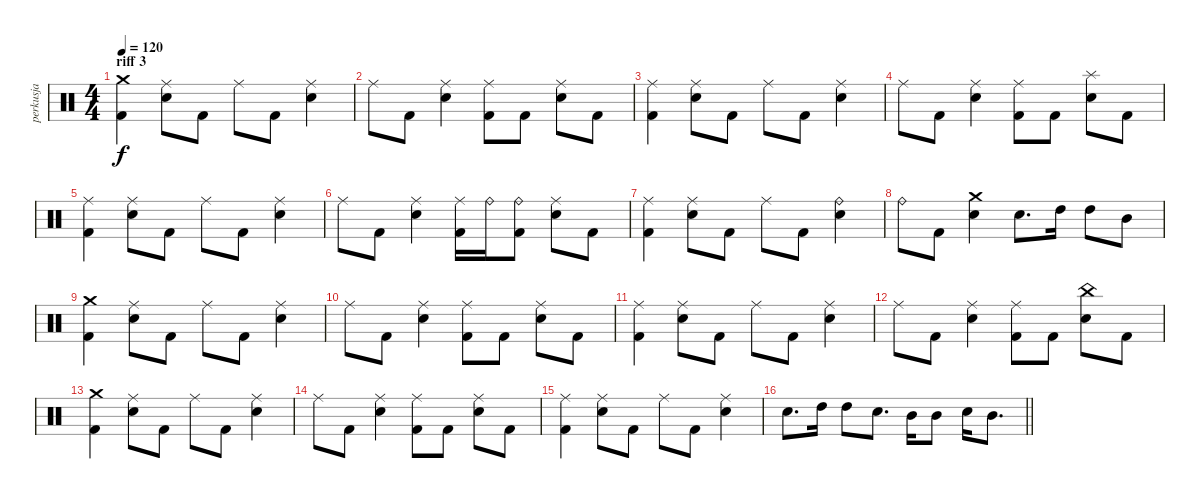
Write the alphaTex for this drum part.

\track ("perkusja" "perkusja") {instrument percussion}
\staff {score}
\articulation defaults
\ts (4 4)
\section ("" "riff 3")
\tempo 120
\clef neutral
\ks c
("Crash medium (hit)" "Kick (hit) 2").4{dy f} ("Ride (middle)" "Electric Snare (hit)").8 "Kick (hit) 2".8 "Ride (middle)".8 "Kick (hit) 2".8 ("Ride (middle)" "Electric Snare (hit)").4 |
"Ride (middle)".8 "Kick (hit) 2".8 ("Ride (middle)" "Electric Snare (hit)").4 ("Ride (middle)" "Kick (hit) 2").8 "Kick (hit) 2".8 ("Ride (middle)" "Electric Snare (hit)").8 "Kick (hit) 2".8 |
("Ride (middle)" "Kick (hit) 2").4 ("Ride (middle)" "Electric Snare (hit)").8 "Kick (hit) 2".8 "Ride (middle)".8 "Kick (hit) 2".8 ("Ride (middle)" "Electric Snare (hit)").4 |
"Ride (middle)".8 "Kick (hit) 2".8 ("Ride (middle)" "Electric Snare (hit)").4 ("Ride (middle)" "Kick (hit) 2").8 "Kick (hit) 2".8 ("Splash (hit)" "Electric Snare (hit)").8 "Kick (hit) 2".8 |
("Ride (middle)" "Kick (hit) 2").4 ("Ride (middle)" "Electric Snare (hit)").8 "Kick (hit) 2".8 "Ride (middle)".8 "Kick (hit) 2".8 ("Ride (middle)" "Electric Snare (hit)").4 |
"Ride (middle)".8 "Kick (hit) 2".8 ("Ride (middle)" "Electric Snare (hit)").4 ("Ride (middle)" "Kick (hit) 2").16 "Ride (bell)".16 ("Ride (bell)" "Kick (hit) 2").8 ("Ride (middle)" "Electric Snare (hit)").8 "Kick (hit) 2".8 |
("Ride (middle)" "Kick (hit) 2").4 ("Ride (middle)" "Electric Snare (hit)").8 "Kick (hit) 2".8 "Ride (middle)".8 "Kick (hit) 2".8 ("Ride (bell)" "Electric Snare (hit)").4 |
"Ride (bell)".8 "Kick (hit) 2".8 ("Crash medium (hit)" "Electric Snare (hit)").4 "Electric Snare (hit)".8{d} "High Tom (hit)".16 "High Tom (hit)".8 "Mid Tom (hit)".8 |
("Crash medium (hit)" "Kick (hit) 2").4 ("Ride (middle)" "Electric Snare (hit)").8 "Kick (hit) 2".8 "Ride (middle)".8 "Kick (hit) 2".8 ("Ride (middle)" "Electric Snare (hit)").4 |
"Ride (middle)".8 "Kick (hit) 2".8 ("Ride (middle)" "Electric Snare (hit)").4 ("Ride (middle)" "Kick (hit) 2").8 "Kick (hit) 2".8 ("Ride (middle)" "Electric Snare (hit)").8 "Kick (hit) 2".8 |
("Ride (middle)" "Kick (hit) 2").4 ("Ride (middle)" "Electric Snare (hit)").8 "Kick (hit) 2".8 "Ride (middle)".8 "Kick (hit) 2".8 ("Ride (middle)" "Electric Snare (hit)").4 |
"Ride (middle)".8 "Kick (hit) 2".8 ("Ride (middle)" "Electric Snare (hit)").4 ("Ride (middle)" "Kick (hit) 2").8 "Kick (hit) 2".8 ("China (hit)" "Electric Snare (hit)").8 "Kick (hit) 2".8 |
("Crash medium (hit)" "Kick (hit) 2").4 ("Ride (middle)" "Electric Snare (hit)").8 "Kick (hit) 2".8 "Ride (middle)".8 "Kick (hit) 2".8 ("Ride (middle)" "Electric Snare (hit)").4 |
"Ride (middle)".8 "Kick (hit) 2".8 ("Ride (middle)" "Electric Snare (hit)").4 ("Ride (middle)" "Kick (hit) 2").8 "Kick (hit) 2".8 ("Ride (middle)" "Electric Snare (hit)").8 "Kick (hit) 2".8 |
("Ride (middle)" "Kick (hit) 2").4 ("Ride (middle)" "Electric Snare (hit)").8 "Kick (hit) 2".8 "Ride (middle)".8 "Kick (hit) 2".8 ("Ride (middle)" "Electric Snare (hit)").4 |
\barLineRight lightlight "Electric Snare (hit)".8{d} "High Tom (hit)".16 "High Tom (hit)".8 "Electric Snare (hit)".8{d} "Mid Tom (hit)".16 "Mid Tom (hit)".8 "Electric Snare (hit)".16 "Mid Tom (hit)".8{d}
